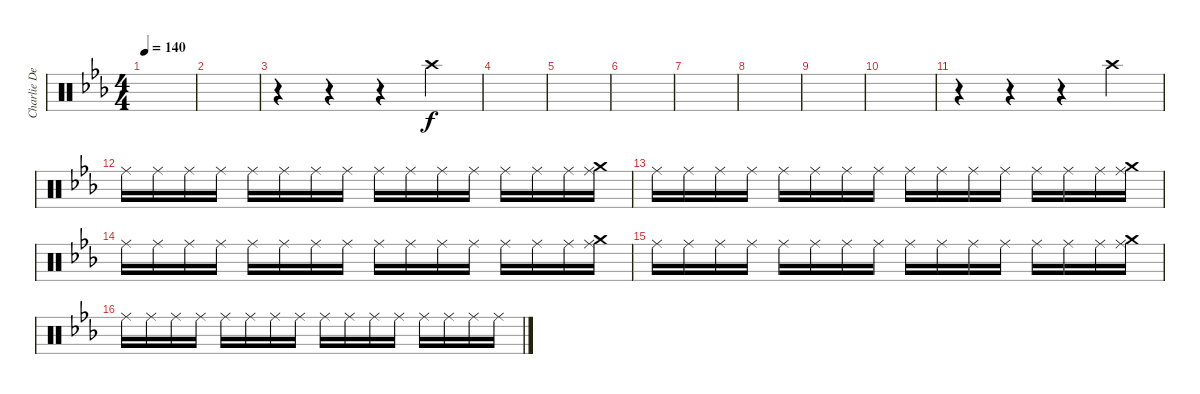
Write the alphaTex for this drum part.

\track ("Charlie Devil" "Charlie De") {instrument percussion}
\staff {score}
\articulation defaults
\ts (4 4)
\tempo 140
\clef neutral
\ks eb
|
|
r.4 r.4 r.4 "Crash high (hit)".4 |
|
|
|
|
|
|
|
r.4 r.4 r.4 "Crash high (hit)".4 |
"Ride (middle)".16 "Ride (middle)".16 "Ride (middle)".16 "Ride (middle)".16 "Ride (middle)".16 "Ride (middle)".16 "Ride (middle)".16 "Ride (middle)".16 "Ride (middle)".16 "Ride (middle)".16 "Ride (middle)".16 "Ride (middle)".16 "Ride (middle)".16 "Ride (middle)".16 "Ride (middle)".16 ("Ride (middle)" "Crash medium (hit)").16 |
"Ride (middle)".16 "Ride (middle)".16 "Ride (middle)".16 "Ride (middle)".16 "Ride (middle)".16 "Ride (middle)".16 "Ride (middle)".16 "Ride (middle)".16 "Ride (middle)".16 "Ride (middle)".16 "Ride (middle)".16 "Ride (middle)".16 "Ride (middle)".16 "Ride (middle)".16 "Ride (middle)".16 ("Ride (middle)" "Crash medium (hit)").16 |
"Ride (middle)".16 "Ride (middle)".16 "Ride (middle)".16 "Ride (middle)".16 "Ride (middle)".16 "Ride (middle)".16 "Ride (middle)".16 "Ride (middle)".16 "Ride (middle)".16 "Ride (middle)".16 "Ride (middle)".16 "Ride (middle)".16 "Ride (middle)".16 "Ride (middle)".16 "Ride (middle)".16 ("Ride (middle)" "Crash medium (hit)").16 |
"Ride (middle)".16 "Ride (middle)".16 "Ride (middle)".16 "Ride (middle)".16 "Ride (middle)".16 "Ride (middle)".16 "Ride (middle)".16 "Ride (middle)".16 "Ride (middle)".16 "Ride (middle)".16 "Ride (middle)".16 "Ride (middle)".16 "Ride (middle)".16 "Ride (middle)".16 "Ride (middle)".16 ("Ride (middle)" "Crash medium (hit)").16 |
"Ride (middle)".16 "Ride (middle)".16 "Ride (middle)".16 "Ride (middle)".16 "Ride (middle)".16 "Ride (middle)".16 "Ride (middle)".16 "Ride (middle)".16 "Ride (middle)".16 "Ride (middle)".16 "Ride (middle)".16 "Ride (middle)".16 "Ride (middle)".16 "Ride (middle)".16 "Ride (middle)".16 "Ride (middle)".16
